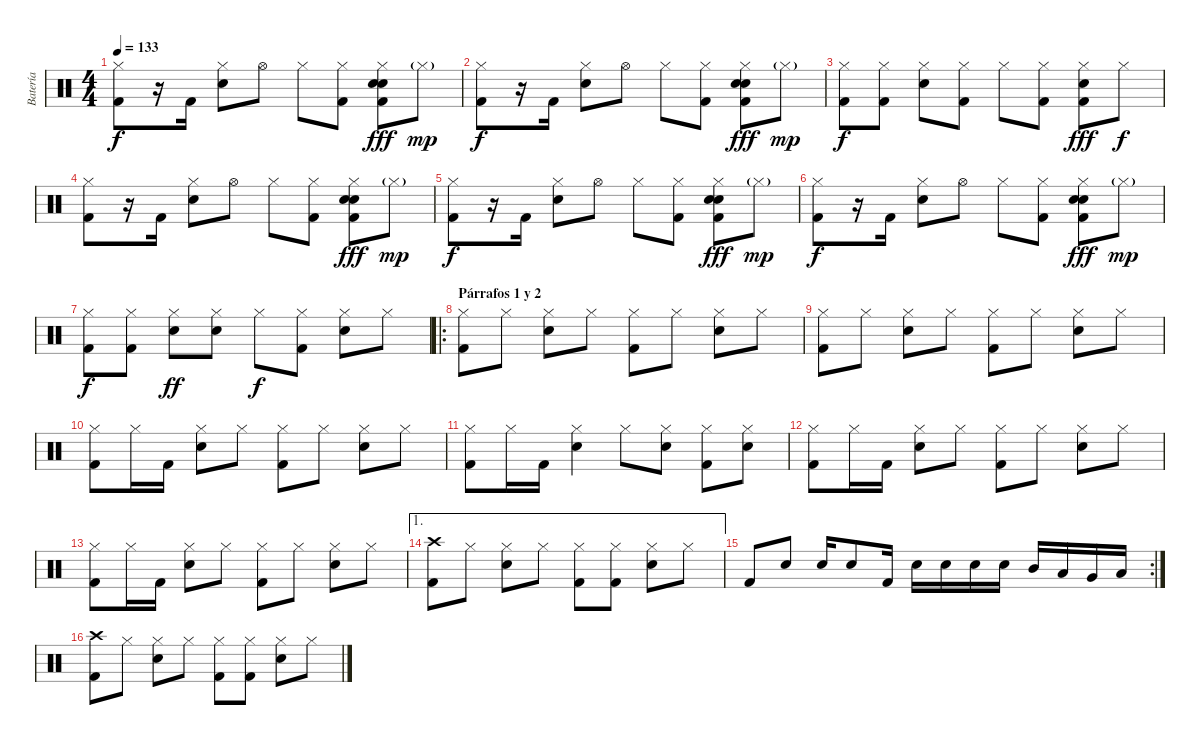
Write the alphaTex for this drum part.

\track ("Batería" "Batería") {instrument percussion}
\staff {score}
\articulation defaults
\ts (4 4)
\tempo 133
\clef neutral
\ks c
("Hi-Hat (closed)" "Kick (hit) 2").8{dy f} r.16 "Kick (hit) 2".16 ("Hi-Hat (closed)" "Snare (hit) 2").8 "Hi-Hat (open)".8 "Hi-Hat (closed)".8 ("Hi-Hat (closed)" "Kick (hit) 2").8 ("Hi-Hat (closed)" "Snare (hit) 2" "Snare (hit) 2" "Kick (hit) 2").8{dy fff} "Hi-Hat (closed)"{g}.8{dy mp} |
("Hi-Hat (closed)" "Kick (hit) 2").8{dy f} r.16 "Kick (hit) 2".16 ("Hi-Hat (closed)" "Snare (hit) 2").8 "Hi-Hat (open)".8 "Hi-Hat (closed)".8 ("Hi-Hat (closed)" "Kick (hit) 2").8 ("Hi-Hat (closed)" "Snare (hit) 2" "Snare (hit) 2" "Kick (hit) 2").8{dy fff} "Hi-Hat (closed)"{g}.8{dy mp} |
("Hi-Hat (closed)" "Kick (hit) 2").8{dy f} ("Hi-Hat (closed)" "Kick (hit) 2").8 ("Hi-Hat (closed)" "Snare (hit) 2").8 ("Hi-Hat (closed)" "Kick (hit) 2").8 "Hi-Hat (closed)".8 ("Hi-Hat (closed)" "Kick (hit) 2").8 ("Hi-Hat (closed)" "Snare (hit) 2" "Kick (hit) 2").8{dy fff} "Hi-Hat (closed)".8{dy f} |
("Hi-Hat (closed)" "Kick (hit) 2").8 r.16 "Kick (hit) 2".16 ("Hi-Hat (closed)" "Snare (hit) 2").8 "Hi-Hat (open)".8 "Hi-Hat (closed)".8 ("Hi-Hat (closed)" "Kick (hit) 2").8 ("Hi-Hat (closed)" "Snare (hit) 2" "Snare (hit) 2" "Kick (hit) 2").8{dy fff} "Hi-Hat (closed)"{g}.8{dy mp} |
("Hi-Hat (closed)" "Kick (hit) 2").8{dy f} r.16 "Kick (hit) 2".16 ("Hi-Hat (closed)" "Snare (hit) 2").8 "Hi-Hat (open)".8 "Hi-Hat (closed)".8 ("Hi-Hat (closed)" "Kick (hit) 2").8 ("Hi-Hat (closed)" "Snare (hit) 2" "Snare (hit) 2" "Kick (hit) 2").8{dy fff} "Hi-Hat (closed)"{g}.8{dy mp} |
("Hi-Hat (closed)" "Kick (hit) 2").8{dy f} r.16 "Kick (hit) 2".16 ("Hi-Hat (closed)" "Snare (hit) 2").8 "Hi-Hat (open)".8 "Hi-Hat (closed)".8 ("Hi-Hat (closed)" "Kick (hit) 2").8 ("Hi-Hat (closed)" "Snare (hit) 2" "Snare (hit) 2" "Kick (hit) 2").8{dy fff} "Hi-Hat (closed)"{g}.8{dy mp} |
("Hi-Hat (closed)" "Kick (hit) 2").8{dy f} ("Hi-Hat (closed)" "Kick (hit) 2").8 ("Hi-Hat (closed)" "Snare (hit) 2").8{dy ff} ("Hi-Hat (closed)" "Snare (hit) 2").8 "Hi-Hat (closed)".8{dy f} ("Hi-Hat (closed)" "Kick (hit) 2").8 ("Hi-Hat (closed)" "Snare (hit) 2").8 "Hi-Hat (closed)".8 |
\ro
\section ("" "Párrafos 1 y 2")
("Hi-Hat (closed)" "Kick (hit) 2").8 "Hi-Hat (closed)".8 ("Hi-Hat (closed)" "Snare (hit) 2").8 "Hi-Hat (closed)".8 ("Hi-Hat (closed)" "Kick (hit) 2").8 "Hi-Hat (closed)".8 ("Hi-Hat (closed)" "Snare (hit) 2").8 "Hi-Hat (closed)".8 |
("Hi-Hat (closed)" "Kick (hit) 2").8 "Hi-Hat (closed)".8 ("Hi-Hat (closed)" "Snare (hit) 2").8 "Hi-Hat (closed)".8 ("Hi-Hat (closed)" "Kick (hit) 2").8 "Hi-Hat (closed)".8 ("Hi-Hat (closed)" "Snare (hit) 2").8 "Hi-Hat (closed)".8 |
("Hi-Hat (closed)" "Kick (hit) 2").8 "Hi-Hat (closed)".16 "Kick (hit) 2".16 ("Hi-Hat (closed)" "Snare (hit) 2").8 "Hi-Hat (closed)".8 ("Hi-Hat (closed)" "Kick (hit) 2").8 "Hi-Hat (closed)".8 ("Hi-Hat (closed)" "Snare (hit) 2").8 "Hi-Hat (closed)".8 |
("Hi-Hat (closed)" "Kick (hit) 2").8 "Hi-Hat (closed)".16 "Kick (hit) 2".16 ("Hi-Hat (closed)" "Snare (hit) 2").4 "Hi-Hat (closed)".8 ("Hi-Hat (closed)" "Snare (hit) 2").8 ("Hi-Hat (closed)" "Kick (hit) 2").8 ("Hi-Hat (closed)" "Snare (hit) 2").8 |
("Hi-Hat (closed)" "Kick (hit) 2").8 "Hi-Hat (closed)".16 "Kick (hit) 2".16 ("Hi-Hat (closed)" "Snare (hit) 2").8 "Hi-Hat (closed)".8 ("Hi-Hat (closed)" "Kick (hit) 2").8 "Hi-Hat (closed)".8 ("Hi-Hat (closed)" "Snare (hit) 2").8 "Hi-Hat (closed)".8 |
("Hi-Hat (closed)" "Kick (hit) 2").8 "Hi-Hat (closed)".16 "Kick (hit) 2".16 ("Hi-Hat (closed)" "Snare (hit) 2").8 "Hi-Hat (closed)".8 ("Hi-Hat (closed)" "Kick (hit) 2").8 "Hi-Hat (closed)".8 ("Hi-Hat (closed)" "Snare (hit) 2").8 "Hi-Hat (closed)".8 |
\ae 1
("Crash high (hit)" "Kick (hit) 2").8 "Hi-Hat (closed)".8 ("Hi-Hat (closed)" "Snare (hit) 2").8 "Hi-Hat (closed)".8 ("Hi-Hat (closed)" "Kick (hit) 2").8 ("Hi-Hat (closed)" "Kick (hit) 2").8 ("Hi-Hat (closed)" "Snare (hit) 2").8 "Hi-Hat (closed)".8 |
\rc 2 "Kick (hit) 2".8 "Snare (hit) 2".8 "Snare (hit) 2".16 "Snare (hit) 2".8 "Kick (hit) 2".16 "Snare (hit) 2".16 "Snare (hit) 2".16 "Snare (hit) 2".16 "Snare (hit) 2".16 "Mid Tom (hit)".16 "Low Tom (hit)".16 "Very Low Tom (hit)".16 "Low Floor Tom (hit)".16
|
("Crash high (hit)" "Kick (hit) 2").8 "Hi-Hat (closed)".8 ("Hi-Hat (closed)" "Snare (hit) 2").8 "Hi-Hat (closed)".8 ("Hi-Hat (closed)" "Kick (hit) 2").8 ("Hi-Hat (closed)" "Kick (hit) 2").8 ("Hi-Hat (closed)" "Snare (hit) 2").8 "Hi-Hat (closed)".8
